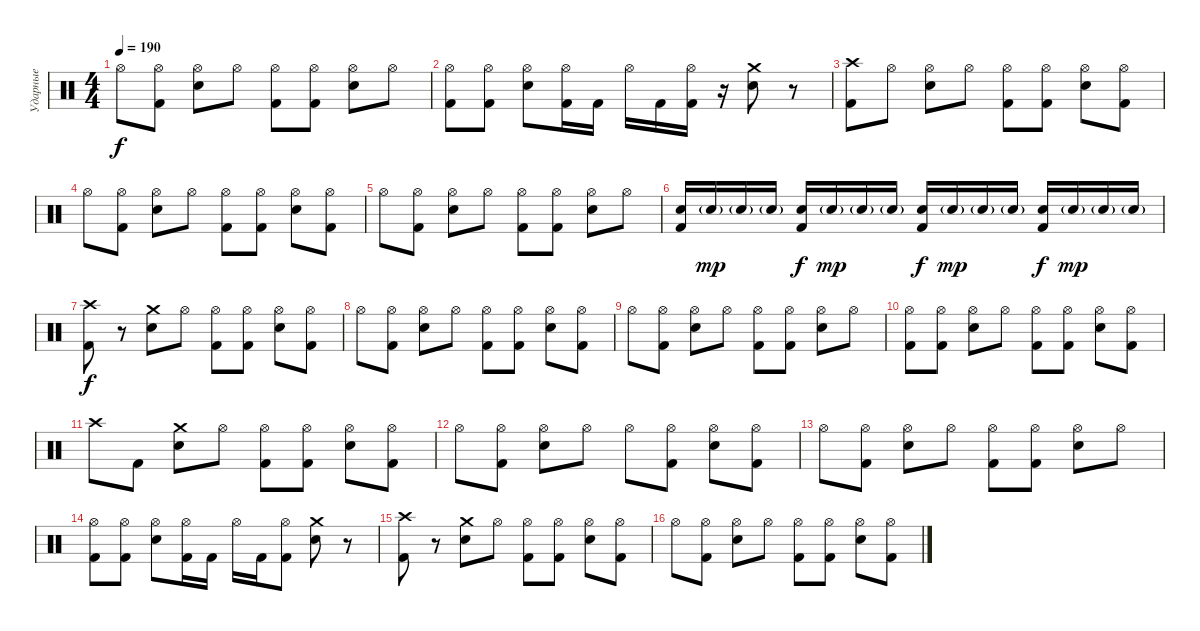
\track ("Ударные" "Ударные") {instrument percussion}
\staff {score}
\articulation defaults
\ts (4 4)
\tempo 190
\clef neutral
\ks c "Hi-Hat (open)".8{dy f}
("Hi-Hat (open)" "Kick (hit) 2").8 ("Hi-Hat (open)" "Electric Snare (hit)").8 "Hi-Hat (open)".8 ("Hi-Hat (open)" "Kick (hit) 2").8 ("Hi-Hat (open)" "Kick (hit) 2").8 ("Hi-Hat (open)" "Electric Snare (hit)").8 "Hi-Hat (open)".8 |
("Hi-Hat (open)" "Kick (hit) 2").8 ("Hi-Hat (open)" "Kick (hit) 2").8 ("Hi-Hat (open)" "Electric Snare (hit)").8 ("Hi-Hat (open)" "Kick (hit) 2").16 "Kick (hit) 2".16 "Hi-Hat (open)".16 "Kick (hit) 2".16 ("Hi-Hat (open)" "Kick (hit) 2").16 r.16 ("Crash medium (hit)" "Electric Snare (hit)").8 r.8 |
("Crash high (hit)" "Kick (hit) 2").8 "Hi-Hat (open)".8 ("Hi-Hat (open)" "Electric Snare (hit)").8 "Hi-Hat (open)".8 ("Hi-Hat (open)" "Kick (hit) 2").8 ("Hi-Hat (open)" "Kick (hit) 2").8 ("Hi-Hat (open)" "Electric Snare (hit)").8 ("Hi-Hat (open)" "Kick (hit) 2").8 |
"Hi-Hat (open)".8 ("Hi-Hat (open)" "Kick (hit) 2").8 ("Hi-Hat (open)" "Electric Snare (hit)").8 "Hi-Hat (open)".8 ("Hi-Hat (open)" "Kick (hit) 2").8 ("Hi-Hat (open)" "Kick (hit) 2").8 ("Hi-Hat (open)" "Electric Snare (hit)").8 ("Hi-Hat (open)" "Kick (hit) 2").8 |
"Hi-Hat (open)".8 ("Hi-Hat (open)" "Kick (hit) 2").8 ("Hi-Hat (open)" "Electric Snare (hit)").8 "Hi-Hat (open)".8 ("Hi-Hat (open)" "Kick (hit) 2").8 ("Hi-Hat (open)" "Kick (hit) 2").8 ("Hi-Hat (open)" "Electric Snare (hit)").8 "Hi-Hat (open)".8 |
("Electric Snare (hit)" "Kick (hit) 2").16 "Electric Snare (hit)"{g}.16{dy mp} "Electric Snare (hit)"{g}.16 "Electric Snare (hit)"{g}.16 ("Electric Snare (hit)" "Kick (hit) 2").16{dy f} "Electric Snare (hit)"{g}.16{dy mp} "Electric Snare (hit)"{g}.16 "Electric Snare (hit)"{g}.16 ("Electric Snare (hit)" "Kick (hit) 2").16{dy f} "Electric Snare (hit)"{g}.16{dy mp} "Electric Snare (hit)"{g}.16 "Electric Snare (hit)"{g}.16 ("Electric Snare (hit)" "Kick (hit) 2").16{dy f} "Electric Snare (hit)"{g}.16{dy mp} "Electric Snare (hit)"{g}.16 "Electric Snare (hit)"{g}.16 |
("Crash high (hit)" "Kick (hit) 2").8{dy f} r.8 ("Crash medium (hit)" "Electric Snare (hit)").8 "Hi-Hat (open)".8 ("Hi-Hat (open)" "Kick (hit) 2").8 ("Hi-Hat (open)" "Kick (hit) 2").8 ("Hi-Hat (open)" "Electric Snare (hit)").8 ("Hi-Hat (open)" "Kick (hit) 2").8 |
"Hi-Hat (open)".8 ("Hi-Hat (open)" "Kick (hit) 2").8 ("Hi-Hat (open)" "Electric Snare (hit)").8 "Hi-Hat (open)".8 ("Hi-Hat (open)" "Kick (hit) 2").8 ("Hi-Hat (open)" "Kick (hit) 2").8 ("Hi-Hat (open)" "Electric Snare (hit)").8 ("Hi-Hat (open)" "Kick (hit) 2").8 |
"Hi-Hat (open)".8 ("Hi-Hat (open)" "Kick (hit) 2").8 ("Hi-Hat (open)" "Electric Snare (hit)").8 "Hi-Hat (open)".8 ("Hi-Hat (open)" "Kick (hit) 2").8 ("Hi-Hat (open)" "Kick (hit) 2").8 ("Hi-Hat (open)" "Electric Snare (hit)").8 "Hi-Hat (open)".8 |
("Hi-Hat (open)" "Kick (hit) 2").8 ("Hi-Hat (open)" "Kick (hit) 2").8 ("Hi-Hat (open)" "Electric Snare (hit)").8 "Hi-Hat (open)".8 ("Hi-Hat (open)" "Kick (hit) 2").8 ("Hi-Hat (open)" "Kick (hit) 2").8 ("Hi-Hat (open)" "Electric Snare (hit)").8 ("Hi-Hat (open)" "Kick (hit) 2").8 |
"Crash high (hit)".8 "Kick (hit) 2".8 ("Crash medium (hit)" "Electric Snare (hit)").8 "Hi-Hat (open)".8 ("Hi-Hat (open)" "Kick (hit) 2").8 ("Hi-Hat (open)" "Kick (hit) 2").8 ("Hi-Hat (open)" "Electric Snare (hit)").8 ("Hi-Hat (open)" "Kick (hit) 2").8 |
"Hi-Hat (open)".8 ("Hi-Hat (open)" "Kick (hit) 2").8 ("Hi-Hat (open)" "Electric Snare (hit)").8 "Hi-Hat (open)".8 "Hi-Hat (open)".8 ("Hi-Hat (open)" "Kick (hit) 2").8 ("Hi-Hat (open)" "Electric Snare (hit)").8 ("Hi-Hat (open)" "Kick (hit) 2").8 |
"Hi-Hat (open)".8 ("Hi-Hat (open)" "Kick (hit) 2").8 ("Hi-Hat (open)" "Electric Snare (hit)").8 "Hi-Hat (open)".8 ("Hi-Hat (open)" "Kick (hit) 2").8 ("Hi-Hat (open)" "Kick (hit) 2").8 ("Hi-Hat (open)" "Electric Snare (hit)").8 "Hi-Hat (open)".8 |
("Hi-Hat (open)" "Kick (hit) 2").8 ("Hi-Hat (open)" "Kick (hit) 2").8 ("Hi-Hat (open)" "Electric Snare (hit)").8 ("Hi-Hat (open)" "Kick (hit) 2").16 "Kick (hit) 2".16 "Hi-Hat (open)".16 "Kick (hit) 2".16 ("Hi-Hat (open)" "Kick (hit) 2").8 ("Crash medium (hit)" "Electric Snare (hit)").8 r.8 |
("Crash high (hit)" "Kick (hit) 2").8 r.8 ("Crash medium (hit)" "Electric Snare (hit)").8 "Hi-Hat (open)".8 ("Hi-Hat (open)" "Kick (hit) 2").8 ("Hi-Hat (open)" "Kick (hit) 2").8 ("Hi-Hat (open)" "Electric Snare (hit)").8 ("Hi-Hat (open)" "Kick (hit) 2").8 |
"Hi-Hat (open)".8 ("Hi-Hat (open)" "Kick (hit) 2").8 ("Hi-Hat (open)" "Electric Snare (hit)").8 "Hi-Hat (open)".8 ("Hi-Hat (open)" "Kick (hit) 2").8 ("Hi-Hat (open)" "Kick (hit) 2").8 ("Hi-Hat (open)" "Electric Snare (hit)").8 ("Hi-Hat (open)" "Kick (hit) 2").8
